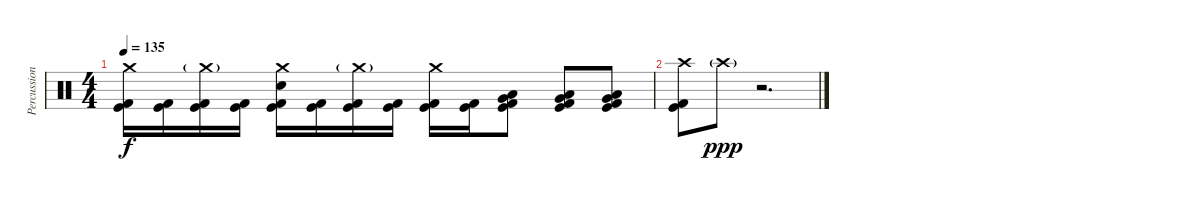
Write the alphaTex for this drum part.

\track ("Percussions" "Percussion") {instrument percussion}
\staff {score}
\articulation defaults
\ts (4 4)
\tempo 135
\clef neutral
\ks c
("Crash medium (hit)" "Kick (hit)" "Kick (hit) 2").16{dy f} ("Kick (hit)" "Kick (hit) 2").16 ("Crash medium (hit)"{g} "Kick (hit)" "Kick (hit) 2").16 ("Kick (hit)" "Kick (hit) 2").16 ("Crash medium (hit)" "Electric Snare (hit)" "Kick (hit)" "Kick (hit) 2").16 ("Kick (hit)" "Kick (hit) 2").16 ("Crash medium (hit)"{g} "Kick (hit)" "Kick (hit) 2").16 ("Kick (hit)" "Kick (hit) 2").16 ("Crash medium (hit)" "Kick (hit)" "Kick (hit) 2").16 ("Kick (hit)" "Kick (hit) 2").16 ("Low Floor Tom (hit)" "Very Low Tom (hit)" "Kick (hit)" "Kick (hit) 2").8 ("Low Floor Tom (hit)" "Very Low Tom (hit)" "Kick (hit)" "Kick (hit) 2").8 ("Low Floor Tom (hit)" "Very Low Tom (hit)" "Kick (hit)" "Kick (hit) 2").8 |
("Crash high (hit)" "Kick (hit)" "Kick (hit) 2").8 "Crash high (hit)"{g}.8{dy ppp} r.2{d}
